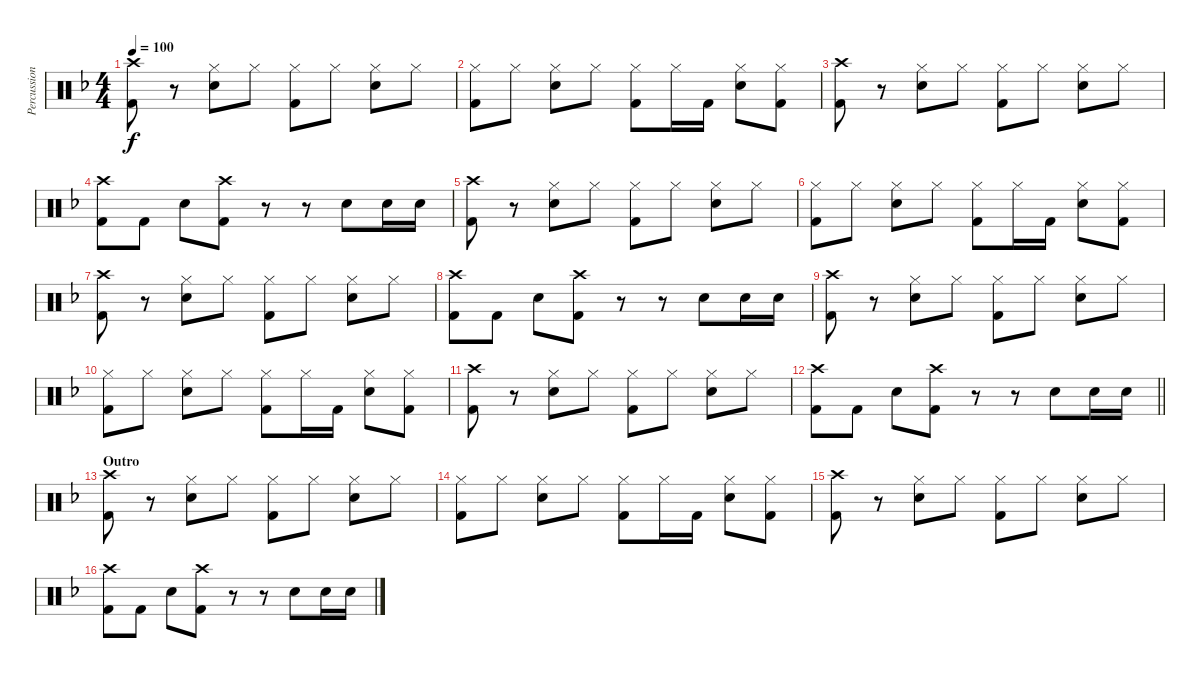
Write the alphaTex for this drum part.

\track ("Percussion" "Percussion") {instrument percussion}
\staff {score}
\articulation defaults
\ts (4 4)
\tempo 100
\clef neutral
\ks dminor
("Crash high (hit)" "Kick (hit) 2").8{dy f} r.8 ("Hi-Hat (closed)" "Snare (hit) 2").8 "Hi-Hat (closed)".8 ("Hi-Hat (closed)" "Kick (hit) 2").8 "Hi-Hat (closed)".8 ("Hi-Hat (closed)" "Snare (hit) 2").8 "Hi-Hat (closed)".8 |
("Hi-Hat (closed)" "Kick (hit) 2").8 "Hi-Hat (closed)".8 ("Hi-Hat (closed)" "Snare (hit) 2").8 "Hi-Hat (closed)".8 ("Hi-Hat (closed)" "Kick (hit) 2").8 "Hi-Hat (closed)".16 "Kick (hit) 2".16 ("Hi-Hat (closed)" "Snare (hit) 2").8 ("Hi-Hat (closed)" "Kick (hit) 2").8 |
("Crash high (hit)" "Kick (hit) 2").8 r.8 ("Hi-Hat (closed)" "Snare (hit) 2").8 "Hi-Hat (closed)".8 ("Hi-Hat (closed)" "Kick (hit) 2").8 "Hi-Hat (closed)".8 ("Hi-Hat (closed)" "Snare (hit) 2").8 "Hi-Hat (closed)".8 |
("Crash high (hit)" "Kick (hit) 2").8 "Kick (hit) 2".8 "Snare (hit) 2".8 ("Crash high (hit)" "Kick (hit) 2").8 r.8 r.8 "Snare (hit) 2".8 "Snare (hit) 2".16 "Snare (hit) 2".16 |
("Crash high (hit)" "Kick (hit) 2").8 r.8 ("Hi-Hat (closed)" "Snare (hit) 2").8 "Hi-Hat (closed)".8 ("Hi-Hat (closed)" "Kick (hit) 2").8 "Hi-Hat (closed)".8 ("Hi-Hat (closed)" "Snare (hit) 2").8 "Hi-Hat (closed)".8 |
("Hi-Hat (closed)" "Kick (hit) 2").8 "Hi-Hat (closed)".8 ("Hi-Hat (closed)" "Snare (hit) 2").8 "Hi-Hat (closed)".8 ("Hi-Hat (closed)" "Kick (hit) 2").8 "Hi-Hat (closed)".16 "Kick (hit) 2".16 ("Hi-Hat (closed)" "Snare (hit) 2").8 ("Hi-Hat (closed)" "Kick (hit) 2").8 |
("Crash high (hit)" "Kick (hit) 2").8 r.8 ("Hi-Hat (closed)" "Snare (hit) 2").8 "Hi-Hat (closed)".8 ("Hi-Hat (closed)" "Kick (hit) 2").8 "Hi-Hat (closed)".8 ("Hi-Hat (closed)" "Snare (hit) 2").8 "Hi-Hat (closed)".8 |
("Crash high (hit)" "Kick (hit) 2").8 "Kick (hit) 2".8 "Snare (hit) 2".8 ("Crash high (hit)" "Kick (hit) 2").8 r.8 r.8 "Snare (hit) 2".8 "Snare (hit) 2".16 "Snare (hit) 2".16 |
("Crash high (hit)" "Kick (hit) 2").8 r.8 ("Hi-Hat (closed)" "Snare (hit) 2").8 "Hi-Hat (closed)".8 ("Hi-Hat (closed)" "Kick (hit) 2").8 "Hi-Hat (closed)".8 ("Hi-Hat (closed)" "Snare (hit) 2").8 "Hi-Hat (closed)".8 |
("Hi-Hat (closed)" "Kick (hit) 2").8 "Hi-Hat (closed)".8 ("Hi-Hat (closed)" "Snare (hit) 2").8 "Hi-Hat (closed)".8 ("Hi-Hat (closed)" "Kick (hit) 2").8 "Hi-Hat (closed)".16 "Kick (hit) 2".16 ("Hi-Hat (closed)" "Snare (hit) 2").8 ("Hi-Hat (closed)" "Kick (hit) 2").8 |
("Crash high (hit)" "Kick (hit) 2").8 r.8 ("Hi-Hat (closed)" "Snare (hit) 2").8 "Hi-Hat (closed)".8 ("Hi-Hat (closed)" "Kick (hit) 2").8 "Hi-Hat (closed)".8 ("Hi-Hat (closed)" "Snare (hit) 2").8 "Hi-Hat (closed)".8 |
\barLineRight lightlight
("Crash high (hit)" "Kick (hit) 2").8 "Kick (hit) 2".8 "Snare (hit) 2".8 ("Crash high (hit)" "Kick (hit) 2").8 r.8 r.8 "Snare (hit) 2".8 "Snare (hit) 2".16 "Snare (hit) 2".16 |
\section ("" "Outro")
("Crash high (hit)" "Kick (hit) 2").8 r.8 ("Hi-Hat (closed)" "Snare (hit) 2").8 "Hi-Hat (closed)".8 ("Hi-Hat (closed)" "Kick (hit) 2").8 "Hi-Hat (closed)".8 ("Hi-Hat (closed)" "Snare (hit) 2").8 "Hi-Hat (closed)".8 |
("Hi-Hat (closed)" "Kick (hit) 2").8 "Hi-Hat (closed)".8 ("Hi-Hat (closed)" "Snare (hit) 2").8 "Hi-Hat (closed)".8 ("Hi-Hat (closed)" "Kick (hit) 2").8 "Hi-Hat (closed)".16 "Kick (hit) 2".16 ("Hi-Hat (closed)" "Snare (hit) 2").8 ("Hi-Hat (closed)" "Kick (hit) 2").8 |
("Crash high (hit)" "Kick (hit) 2").8 r.8 ("Hi-Hat (closed)" "Snare (hit) 2").8 "Hi-Hat (closed)".8 ("Hi-Hat (closed)" "Kick (hit) 2").8 "Hi-Hat (closed)".8 ("Hi-Hat (closed)" "Snare (hit) 2").8 "Hi-Hat (closed)".8 |
("Crash high (hit)" "Kick (hit) 2").8 "Kick (hit) 2".8 "Snare (hit) 2".8 ("Crash high (hit)" "Kick (hit) 2").8 r.8 r.8 "Snare (hit) 2".8 "Snare (hit) 2".16 "Snare (hit) 2".16
